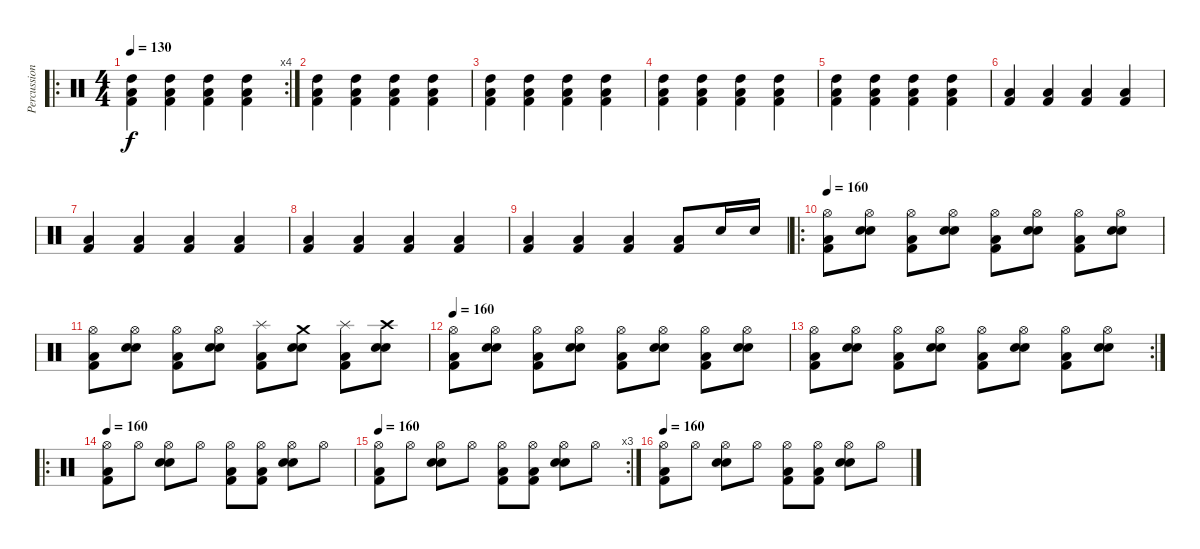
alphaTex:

\track ("Percussions" "Percussion") {instrument percussion}
\staff {score}
\articulation defaults
\ro
\rc 4
\ts (4 4)
\tempo 130
\clef neutral
\ks c
("High Tom (hit)" "Kick (hit) 2" "Low Floor Tom (hit)").4{dy f} ("High Tom (hit)" "Kick (hit) 2" "Low Floor Tom (hit)").4 ("High Tom (hit)" "Kick (hit) 2" "Low Floor Tom (hit)").4 ("High Tom (hit)" "Kick (hit) 2" "Low Floor Tom (hit)").4 |
("High Tom (hit)" "Kick (hit) 2" "Low Floor Tom (hit)").4 ("High Tom (hit)" "Kick (hit) 2" "Low Floor Tom (hit)").4 ("High Tom (hit)" "Kick (hit) 2" "Low Floor Tom (hit)").4 ("High Tom (hit)" "Kick (hit) 2" "Low Floor Tom (hit)").4 |
("High Tom (hit)" "Kick (hit) 2" "Low Floor Tom (hit)").4 ("High Tom (hit)" "Kick (hit) 2" "Low Floor Tom (hit)").4 ("High Tom (hit)" "Kick (hit) 2" "Low Floor Tom (hit)").4 ("High Tom (hit)" "Kick (hit) 2" "Low Floor Tom (hit)").4 |
("High Tom (hit)" "Kick (hit) 2" "Low Floor Tom (hit)").4 ("High Tom (hit)" "Kick (hit) 2" "Low Floor Tom (hit)").4 ("High Tom (hit)" "Kick (hit) 2" "Low Floor Tom (hit)").4 ("High Tom (hit)" "Kick (hit) 2" "Low Floor Tom (hit)").4 |
("High Tom (hit)" "Kick (hit) 2" "Low Floor Tom (hit)").4 ("High Tom (hit)" "Kick (hit) 2" "Low Floor Tom (hit)").4 ("High Tom (hit)" "Kick (hit) 2" "Low Floor Tom (hit)").4 ("High Tom (hit)" "Kick (hit) 2" "Low Floor Tom (hit)").4 |
("Kick (hit) 2" "Low Floor Tom (hit)").4 ("Kick (hit) 2" "Low Floor Tom (hit)").4 ("Kick (hit) 2" "Low Floor Tom (hit)").4 ("Kick (hit) 2" "Low Floor Tom (hit)").4 |
("Kick (hit) 2" "Low Floor Tom (hit)").4 ("Kick (hit) 2" "Low Floor Tom (hit)").4 ("Kick (hit) 2" "Low Floor Tom (hit)").4 ("Kick (hit) 2" "Low Floor Tom (hit)").4 |
("Kick (hit) 2" "Low Floor Tom (hit)").4 ("Kick (hit) 2" "Low Floor Tom (hit)").4 ("Kick (hit) 2" "Low Floor Tom (hit)").4 ("Kick (hit) 2" "Low Floor Tom (hit)").4 |
("Kick (hit) 2" "Low Floor Tom (hit)").4 ("Kick (hit) 2" "Low Floor Tom (hit)").4 ("Kick (hit) 2" "Low Floor Tom (hit)").4 ("Kick (hit) 2" "Low Floor Tom (hit)").8 "Snare (hit) 2".16 "Snare (hit) 2".16 |
\ro
\tempo 160
("Hi-Hat (open)" "Kick (hit) 2" "Low Floor Tom (hit)").8 ("Hi-Hat (open)" "Snare (hit) 2" "Electric Snare (hit)").8 ("Hi-Hat (open)" "Kick (hit) 2" "Low Floor Tom (hit)").8 ("Hi-Hat (open)" "Snare (hit) 2" "Electric Snare (hit)").8 ("Hi-Hat (open)" "Kick (hit) 2" "Low Floor Tom (hit)").8 ("Hi-Hat (open)" "Snare (hit) 2" "Electric Snare (hit)").8 ("Hi-Hat (open)" "Kick (hit) 2" "Low Floor Tom (hit)").8 ("Hi-Hat (open)" "Snare (hit) 2" "Electric Snare (hit)").8 |
("Hi-Hat (open)" "Kick (hit) 2" "Low Floor Tom (hit)").8 ("Hi-Hat (open)" "Snare (hit) 2" "Electric Snare (hit)").8 ("Hi-Hat (open)" "Kick (hit) 2" "Low Floor Tom (hit)").8 ("Hi-Hat (open)" "Snare (hit) 2" "Electric Snare (hit)").8 ("Splash (hit)" "Kick (hit) 2" "Low Floor Tom (hit)").8 ("Crash medium (hit)" "Snare (hit) 2" "Electric Snare (hit)").8 ("Splash (hit)" "Kick (hit) 2" "Low Floor Tom (hit)").8 ("Crash high (hit)" "Snare (hit) 2" "Electric Snare (hit)").8 |
\tempo 160
("Hi-Hat (open)" "Kick (hit) 2" "Low Floor Tom (hit)").8 ("Hi-Hat (open)" "Snare (hit) 2" "Electric Snare (hit)").8 ("Hi-Hat (open)" "Kick (hit) 2" "Low Floor Tom (hit)").8 ("Hi-Hat (open)" "Snare (hit) 2" "Electric Snare (hit)").8 ("Hi-Hat (open)" "Kick (hit) 2" "Low Floor Tom (hit)").8 ("Hi-Hat (open)" "Snare (hit) 2" "Electric Snare (hit)").8 ("Hi-Hat (open)" "Kick (hit) 2" "Low Floor Tom (hit)").8 ("Hi-Hat (open)" "Snare (hit) 2" "Electric Snare (hit)").8 |
\rc 2
("Hi-Hat (open)" "Kick (hit) 2" "Low Floor Tom (hit)").8 ("Hi-Hat (open)" "Snare (hit) 2" "Electric Snare (hit)").8 ("Hi-Hat (open)" "Kick (hit) 2" "Low Floor Tom (hit)").8 ("Hi-Hat (open)" "Snare (hit) 2" "Electric Snare (hit)").8 ("Hi-Hat (open)" "Kick (hit) 2" "Low Floor Tom (hit)").8 ("Hi-Hat (open)" "Snare (hit) 2" "Electric Snare (hit)").8 ("Hi-Hat (open)" "Kick (hit) 2" "Low Floor Tom (hit)").8 ("Hi-Hat (open)" "Snare (hit) 2" "Electric Snare (hit)").8 |
\ro
\tempo 160
("Hi-Hat (open)" "Kick (hit) 2" "Low Floor Tom (hit)").8 "Hi-Hat (open)".8 ("Hi-Hat (open)" "Snare (hit) 2" "Electric Snare (hit)").8 "Hi-Hat (open)".8 ("Hi-Hat (open)" "Kick (hit) 2" "Low Floor Tom (hit)").8 ("Hi-Hat (open)" "Kick (hit) 2" "Low Floor Tom (hit)").8 ("Hi-Hat (open)" "Snare (hit) 2" "Electric Snare (hit)").8 "Hi-Hat (open)".8 |
\rc 3
\tempo 160
("Hi-Hat (open)" "Kick (hit) 2" "Low Floor Tom (hit)").8 "Hi-Hat (open)".8 ("Hi-Hat (open)" "Snare (hit) 2" "Electric Snare (hit)").8 "Hi-Hat (open)".8 ("Hi-Hat (open)" "Kick (hit) 2" "Low Floor Tom (hit)").8 ("Hi-Hat (open)" "Kick (hit) 2" "Low Floor Tom (hit)").8 ("Hi-Hat (open)" "Snare (hit) 2" "Electric Snare (hit)").8 "Hi-Hat (open)".8 |
\tempo 160
("Hi-Hat (open)" "Kick (hit) 2" "Low Floor Tom (hit)").8 "Hi-Hat (open)".8 ("Hi-Hat (open)" "Snare (hit) 2" "Electric Snare (hit)").8 "Hi-Hat (open)".8 ("Hi-Hat (open)" "Kick (hit) 2" "Low Floor Tom (hit)").8 ("Hi-Hat (open)" "Kick (hit) 2" "Low Floor Tom (hit)").8 ("Hi-Hat (open)" "Snare (hit) 2" "Electric Snare (hit)").8 "Hi-Hat (open)".8
